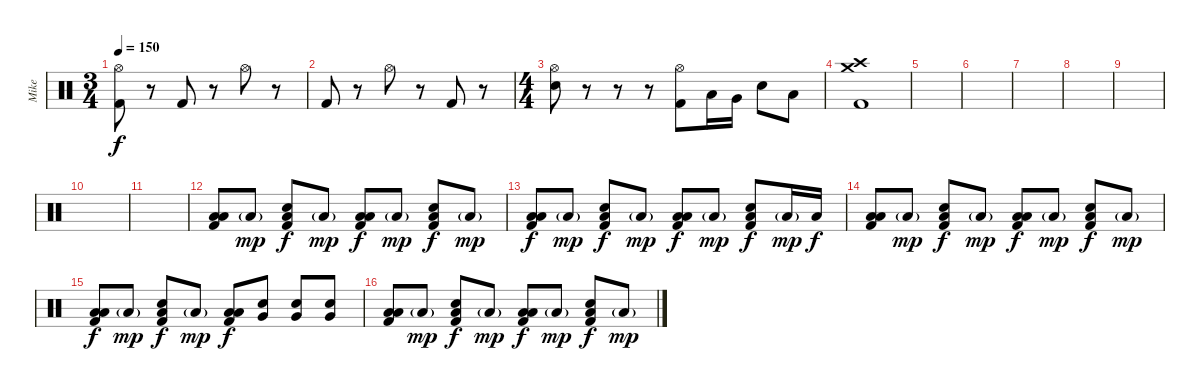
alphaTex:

\track ("Mike" "Mike") {instrument percussion}
\staff {score}
\articulation defaults
\ts (3 4)
\tempo 150
\clef neutral
\ks c
("Hi-Hat (open)" "Kick (hit) 2").8{dy f} r.8 "Kick (hit) 2".8 r.8 "Hi-Hat (open)".8 r.8 |
"Kick (hit) 2".8 r.8 "Hi-Hat (open)".8 r.8 "Kick (hit) 2".8 r.8 |
\ts (4 4)
("Hi-Hat (open)" "Electric Snare (hit)").8 r.8 r.8 r.8 ("Hi-Hat (open)" "Kick (hit) 2").8 "Low Tom (hit)".16 "Very Low Tom (hit)".16 "Electric Snare (hit)".8 "Low Tom (hit)".8 |
("Crash high (hit)" "Crash medium (hit)" "Kick (hit) 2").1 |
|
|
|
|
|
|
|
("Low Floor Tom (hit)" "Low Tom (hit)" "Kick (hit) 2").8 "Low Floor Tom (hit)"{g}.8{dy mp} ("Low Floor Tom (hit)" "Electric Snare (hit)" "Kick (hit) 2").8{dy f} "Low Floor Tom (hit)"{g}.8{dy mp} ("Low Floor Tom (hit)" "Low Tom (hit)" "Kick (hit) 2").8{dy f} "Low Floor Tom (hit)"{g}.8{dy mp} ("Low Floor Tom (hit)" "Electric Snare (hit)" "Kick (hit) 2").8{dy f} "Low Floor Tom (hit)"{g}.8{dy mp} |
("Low Floor Tom (hit)" "Low Tom (hit)" "Kick (hit) 2").8{dy f} "Low Floor Tom (hit)"{g}.8{dy mp} ("Low Floor Tom (hit)" "Electric Snare (hit)" "Kick (hit) 2").8{dy f} "Low Floor Tom (hit)"{g}.8{dy mp} ("Low Floor Tom (hit)" "Low Tom (hit)" "Kick (hit) 2").8{dy f} "Low Floor Tom (hit)"{g}.8{dy mp} ("Low Floor Tom (hit)" "Electric Snare (hit)" "Kick (hit) 2").8{dy f} "Low Floor Tom (hit)"{g}.16{dy mp} "Low Floor Tom (hit)".16{dy f} |
("Low Floor Tom (hit)" "Low Tom (hit)" "Kick (hit) 2").8 "Low Floor Tom (hit)"{g}.8{dy mp} ("Low Floor Tom (hit)" "Electric Snare (hit)" "Kick (hit) 2").8{dy f} "Low Floor Tom (hit)"{g}.8{dy mp} ("Low Floor Tom (hit)" "Low Tom (hit)" "Kick (hit) 2").8{dy f} "Low Floor Tom (hit)"{g}.8{dy mp} ("Low Floor Tom (hit)" "Electric Snare (hit)" "Kick (hit) 2").8{dy f} "Low Floor Tom (hit)"{g}.8{dy mp} |
("Low Floor Tom (hit)" "Low Tom (hit)" "Kick (hit) 2").8{dy f} "Low Floor Tom (hit)"{g}.8{dy mp} ("Low Floor Tom (hit)" "Electric Snare (hit)" "Kick (hit) 2").8{dy f} "Low Floor Tom (hit)"{g}.8{dy mp} ("Low Floor Tom (hit)" "Low Tom (hit)" "Kick (hit) 2").8{dy f} ("Very Low Tom (hit)" "Electric Snare (hit)").8 ("Very Low Tom (hit)" "Electric Snare (hit)").8 ("Very Low Tom (hit)" "Electric Snare (hit)").8 |
("Low Floor Tom (hit)" "Low Tom (hit)" "Kick (hit) 2").8 "Low Floor Tom (hit)"{g}.8{dy mp} ("Low Floor Tom (hit)" "Electric Snare (hit)" "Kick (hit) 2").8{dy f} "Low Floor Tom (hit)"{g}.8{dy mp} ("Low Floor Tom (hit)" "Low Tom (hit)" "Kick (hit) 2").8{dy f} "Low Floor Tom (hit)"{g}.8{dy mp} ("Low Floor Tom (hit)" "Electric Snare (hit)" "Kick (hit) 2").8{dy f} "Low Floor Tom (hit)"{g}.8{dy mp}
